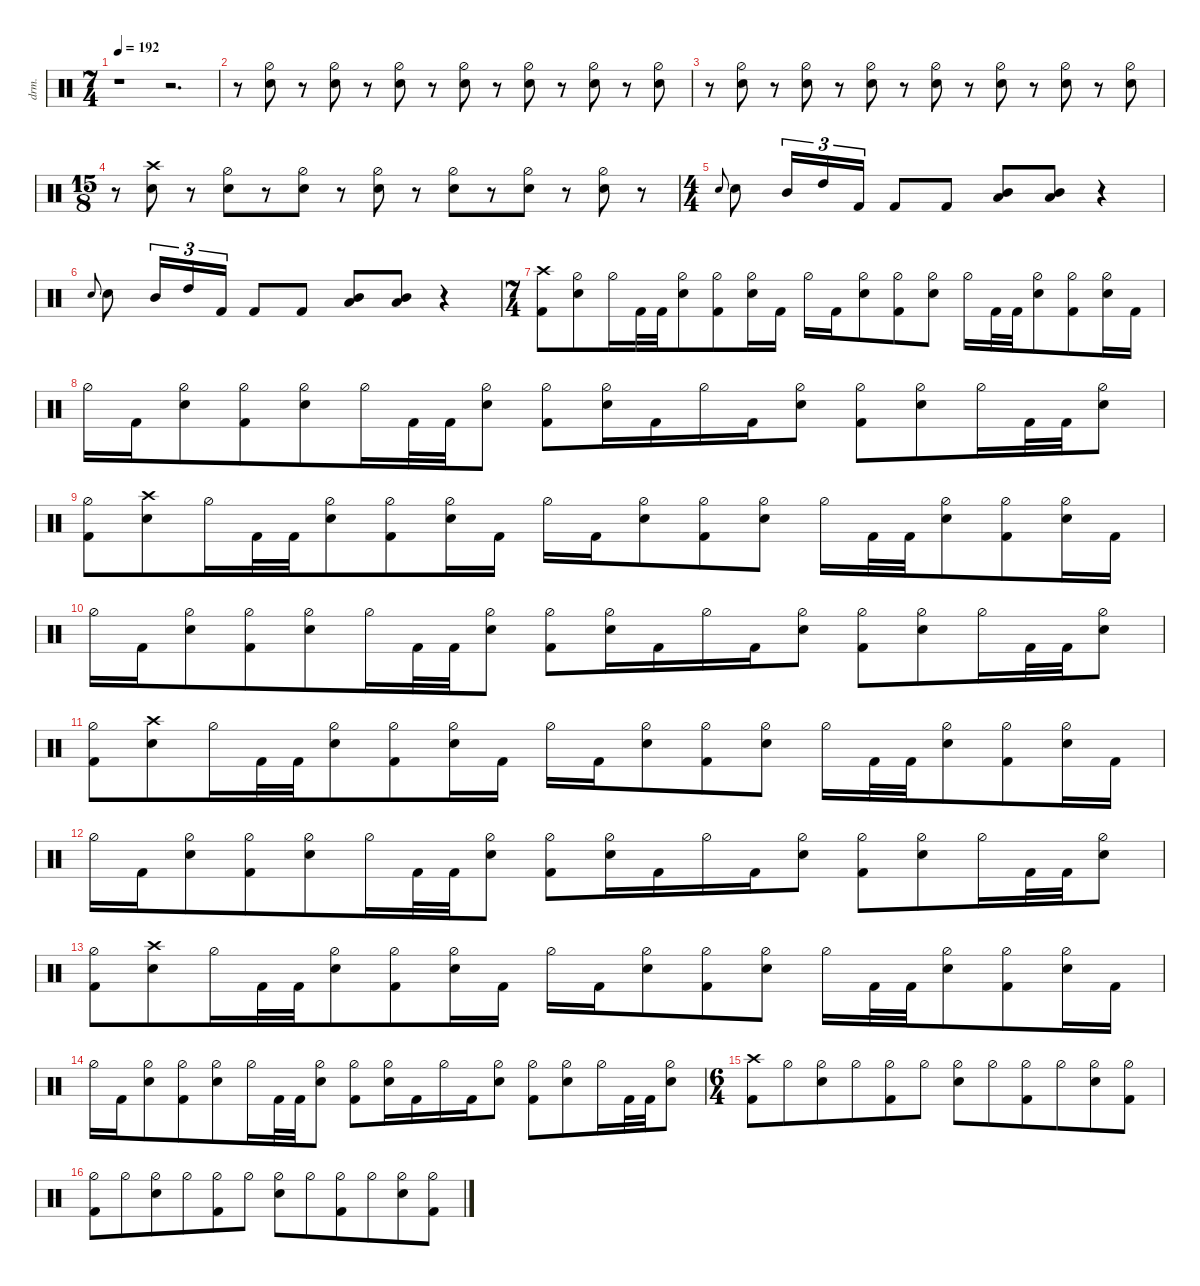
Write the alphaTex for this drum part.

\defaultSystemsLayout 4
\hideDynamics
\bracketExtendMode nobrackets
\otherSystemsTrackNameOrientation horizontal
\track ("Drumkit" "drm.") {defaultSystemsLayout 4 multiBarRest instrument percussion}
\staff
\articulation defaults
\ts (7 4)
\tempo 192
\clef neutral
\ks c
r.1{dy f beam Down} r.2{d beam Down} |
r.8{beam Down} ("Hi-Hat (half)" "Snare (hit) 2").8{beam Down} r.8{beam Down} ("Hi-Hat (half)" "Snare (hit) 2").8{beam Down} r.8{beam Down} ("Hi-Hat (half)" "Snare (hit) 2").8{beam Down} r.8{beam Down} ("Hi-Hat (half)" "Snare (hit) 2").8{beam Down} r.8{beam Down} ("Hi-Hat (half)" "Snare (hit) 2").8{beam Down} r.8{beam Down} ("Hi-Hat (half)" "Snare (hit) 2").8{beam Down} r.8{beam Down} ("Hi-Hat (half)" "Snare (hit) 2").8{beam Down} |
r.8{beam Down} ("Hi-Hat (half)" "Snare (hit) 2").8{beam Down} r.8{beam Down} ("Hi-Hat (half)" "Snare (hit) 2").8{beam Down} r.8{beam Down} ("Hi-Hat (half)" "Snare (hit) 2").8{beam Down} r.8{beam Down} ("Hi-Hat (half)" "Snare (hit) 2").8{beam Down} r.8{beam Down} ("Hi-Hat (half)" "Snare (hit) 2").8{beam Down} r.8{beam Down} ("Hi-Hat (half)" "Snare (hit) 2").8{beam Down} r.8{beam Down} ("Hi-Hat (half)" "Snare (hit) 2").8{beam Down} |
\ts (15 8)
\beaming (8 3 3 3 3 3)
r.8{beam Down} ("Snare (hit) 2" "Crash high (hit)").8{beam Down} r.8{beam Down} ("Hi-Hat (half)" "Snare (hit) 2").8{beam Down} r.8{beam Down} ("Hi-Hat (half)" "Snare (hit) 2").8{beam Down} r.8{beam Down} ("Hi-Hat (half)" "Snare (hit) 2").8{beam Down} r.8{beam Down} ("Hi-Hat (half)" "Snare (hit) 2").8{beam Down} r.8{beam Down} ("Hi-Hat (half)" "Snare (hit) 2").8{beam Down} r.8{beam Down} ("Hi-Hat (half)" "Snare (hit) 2").8{beam Down} r.8{beam Down} |
\ts (4 4)
\beaming (8 2 2 2 2)
"Snare (hit) 2".8{gr onbeat beam Up} "Snare (hit) 2".8{beam Down} "Mid Tom (hit)".16{tu (3 2) beam Up} "High Tom (hit)".16{tu (3 2) beam Up} "Kick (hit) 2".16{tu (3 2) beam Up} "Kick (hit) 2".8{beam Up} "Kick (hit) 2".8{beam Up} ("Mid Tom (hit)" "Low Tom (hit)").8{dy fff beam Up} ("Mid Tom (hit)" "Low Tom (hit)").8{beam Up} r.4{beam Up} |
"Snare (hit) 2".8{gr onbeat dy f beam Up} "Snare (hit) 2".8{beam Down} "Mid Tom (hit)".16{tu (3 2) beam Up} "High Tom (hit)".16{tu (3 2) beam Up} "Kick (hit) 2".16{tu (3 2) beam Up} "Kick (hit) 2".8{beam Up} "Kick (hit) 2".8{beam Up} ("Mid Tom (hit)" "Low Tom (hit)").8{dy fff beam Up} ("Mid Tom (hit)" "Low Tom (hit)").8{beam Up} r.4{beam Up} |
\ts (7 4)
\beaming (8 6 4 4)
("Crash high (hit)" "Kick (hit) 2").8{dy f beam Down} ("Hi-Hat (half)" "Snare (hit) 2").8{beam Down} "Hi-Hat (half)".16{beam Down} "Kick (hit) 2".32{beam Down} "Kick (hit) 2".32{beam Down} ("Hi-Hat (half)" "Snare (hit) 2").8{beam Down} ("Hi-Hat (half)" "Kick (hit) 2").8{beam Down} ("Hi-Hat (half)" "Snare (hit) 2").16{beam Down} "Kick (hit) 2".16{beam Down} "Hi-Hat (half)".16{beam Down} "Kick (hit) 2".16{beam Down} ("Hi-Hat (half)" "Snare (hit) 2").8{beam Down} ("Kick (hit) 2" "Hi-Hat (half)").8{beam Down} ("Hi-Hat (half)" "Snare (hit) 2").8{beam Down} "Hi-Hat (half)".16{beam Down} "Kick (hit) 2".32{beam Down} "Kick (hit) 2".32{beam Down} ("Hi-Hat (half)" "Snare (hit) 2").8{beam Down} ("Hi-Hat (half)" "Kick (hit) 2").8{beam Down} ("Hi-Hat (half)" "Snare (hit) 2").16{beam Down} "Kick (hit) 2".16{beam Down} |
"Hi-Hat (half)".16{beam Down} "Kick (hit) 2".16{beam Down} ("Hi-Hat (half)" "Snare (hit) 2").8{beam Down} ("Kick (hit) 2" "Hi-Hat (half)").8{beam Down} ("Hi-Hat (half)" "Snare (hit) 2").8{beam Down} "Hi-Hat (half)".16{beam Down} "Kick (hit) 2".32{beam Down} "Kick (hit) 2".32{beam Down} ("Hi-Hat (half)" "Snare (hit) 2").8{beam Down} ("Hi-Hat (half)" "Kick (hit) 2").8{beam Down} ("Hi-Hat (half)" "Snare (hit) 2").16{beam Down} "Kick (hit) 2".16{beam Down} "Hi-Hat (half)".16{beam Down} "Kick (hit) 2".16{beam Down} ("Hi-Hat (half)" "Snare (hit) 2").8{beam Down} ("Kick (hit) 2" "Hi-Hat (half)").8{beam Down} ("Hi-Hat (half)" "Snare (hit) 2").8{beam Down} "Hi-Hat (half)".16{beam Down} "Kick (hit) 2".32{beam Down} "Kick (hit) 2".32{beam Down} ("Hi-Hat (half)" "Snare (hit) 2").8{beam Down} |
("Kick (hit) 2" "Hi-Hat (half)").8{beam Down} ("Snare (hit) 2" "Crash high (hit)").8{beam Down} "Hi-Hat (half)".16{beam Down} "Kick (hit) 2".32{beam Down} "Kick (hit) 2".32{beam Down} ("Hi-Hat (half)" "Snare (hit) 2").8{beam Down} ("Hi-Hat (half)" "Kick (hit) 2").8{beam Down} ("Hi-Hat (half)" "Snare (hit) 2").16{beam Down} "Kick (hit) 2".16{beam Down} "Hi-Hat (half)".16{beam Down} "Kick (hit) 2".16{beam Down} ("Hi-Hat (half)" "Snare (hit) 2").8{beam Down} ("Kick (hit) 2" "Hi-Hat (half)").8{beam Down} ("Hi-Hat (half)" "Snare (hit) 2").8{beam Down} "Hi-Hat (half)".16{beam Down} "Kick (hit) 2".32{beam Down} "Kick (hit) 2".32{beam Down} ("Hi-Hat (half)" "Snare (hit) 2").8{beam Down} ("Hi-Hat (half)" "Kick (hit) 2").8{beam Down} ("Hi-Hat (half)" "Snare (hit) 2").16{beam Down} "Kick (hit) 2".16{beam Down} |
"Hi-Hat (half)".16{beam Down} "Kick (hit) 2".16{beam Down} ("Hi-Hat (half)" "Snare (hit) 2").8{beam Down} ("Kick (hit) 2" "Hi-Hat (half)").8{beam Down} ("Hi-Hat (half)" "Snare (hit) 2").8{beam Down} "Hi-Hat (half)".16{beam Down} "Kick (hit) 2".32{beam Down} "Kick (hit) 2".32{beam Down} ("Hi-Hat (half)" "Snare (hit) 2").8{beam Down} ("Hi-Hat (half)" "Kick (hit) 2").8{beam Down} ("Hi-Hat (half)" "Snare (hit) 2").16{beam Down} "Kick (hit) 2".16{beam Down} "Hi-Hat (half)".16{beam Down} "Kick (hit) 2".16{beam Down} ("Hi-Hat (half)" "Snare (hit) 2").8{beam Down} ("Kick (hit) 2" "Hi-Hat (half)").8{beam Down} ("Hi-Hat (half)" "Snare (hit) 2").8{beam Down} "Hi-Hat (half)".16{beam Down} "Kick (hit) 2".32{beam Down} "Kick (hit) 2".32{beam Down} ("Hi-Hat (half)" "Snare (hit) 2").8{beam Down} |
("Kick (hit) 2" "Hi-Hat (half)").8{beam Down} ("Snare (hit) 2" "Crash high (hit)").8{beam Down} "Hi-Hat (half)".16{beam Down} "Kick (hit) 2".32{beam Down} "Kick (hit) 2".32{beam Down} ("Hi-Hat (half)" "Snare (hit) 2").8{beam Down} ("Hi-Hat (half)" "Kick (hit) 2").8{beam Down} ("Hi-Hat (half)" "Snare (hit) 2").16{beam Down} "Kick (hit) 2".16{beam Down} "Hi-Hat (half)".16{beam Down} "Kick (hit) 2".16{beam Down} ("Hi-Hat (half)" "Snare (hit) 2").8{beam Down} ("Kick (hit) 2" "Hi-Hat (half)").8{beam Down} ("Hi-Hat (half)" "Snare (hit) 2").8{beam Down} "Hi-Hat (half)".16{beam Down} "Kick (hit) 2".32{beam Down} "Kick (hit) 2".32{beam Down} ("Hi-Hat (half)" "Snare (hit) 2").8{beam Down} ("Hi-Hat (half)" "Kick (hit) 2").8{beam Down} ("Hi-Hat (half)" "Snare (hit) 2").16{beam Down} "Kick (hit) 2".16{beam Down} |
"Hi-Hat (half)".16{beam Down} "Kick (hit) 2".16{beam Down} ("Hi-Hat (half)" "Snare (hit) 2").8{beam Down} ("Kick (hit) 2" "Hi-Hat (half)").8{beam Down} ("Hi-Hat (half)" "Snare (hit) 2").8{beam Down} "Hi-Hat (half)".16{beam Down} "Kick (hit) 2".32{beam Down} "Kick (hit) 2".32{beam Down} ("Hi-Hat (half)" "Snare (hit) 2").8{beam Down} ("Hi-Hat (half)" "Kick (hit) 2").8{beam Down} ("Hi-Hat (half)" "Snare (hit) 2").16{beam Down} "Kick (hit) 2".16{beam Down} "Hi-Hat (half)".16{beam Down} "Kick (hit) 2".16{beam Down} ("Hi-Hat (half)" "Snare (hit) 2").8{beam Down} ("Kick (hit) 2" "Hi-Hat (half)").8{beam Down} ("Hi-Hat (half)" "Snare (hit) 2").8{beam Down} "Hi-Hat (half)".16{beam Down} "Kick (hit) 2".32{beam Down} "Kick (hit) 2".32{beam Down} ("Hi-Hat (half)" "Snare (hit) 2").8{beam Down} |
("Kick (hit) 2" "Hi-Hat (half)").8{beam Down} ("Snare (hit) 2" "Crash high (hit)").8{beam Down} "Hi-Hat (half)".16{beam Down} "Kick (hit) 2".32{beam Down} "Kick (hit) 2".32{beam Down} ("Hi-Hat (half)" "Snare (hit) 2").8{beam Down} ("Hi-Hat (half)" "Kick (hit) 2").8{beam Down} ("Hi-Hat (half)" "Snare (hit) 2").16{beam Down} "Kick (hit) 2".16{beam Down} "Hi-Hat (half)".16{beam Down} "Kick (hit) 2".16{beam Down} ("Hi-Hat (half)" "Snare (hit) 2").8{beam Down} ("Kick (hit) 2" "Hi-Hat (half)").8{beam Down} ("Hi-Hat (half)" "Snare (hit) 2").8{beam Down} "Hi-Hat (half)".16{beam Down} "Kick (hit) 2".32{beam Down} "Kick (hit) 2".32{beam Down} ("Hi-Hat (half)" "Snare (hit) 2").8{beam Down} ("Hi-Hat (half)" "Kick (hit) 2").8{beam Down} ("Hi-Hat (half)" "Snare (hit) 2").16{beam Down} "Kick (hit) 2".16{beam Down} |
"Hi-Hat (half)".16{beam Down} "Kick (hit) 2".16{beam Down} ("Hi-Hat (half)" "Snare (hit) 2").8{beam Down} ("Kick (hit) 2" "Hi-Hat (half)").8{beam Down} ("Hi-Hat (half)" "Snare (hit) 2").8{beam Down} "Hi-Hat (half)".16{beam Down} "Kick (hit) 2".32{beam Down} "Kick (hit) 2".32{beam Down} ("Hi-Hat (half)" "Snare (hit) 2").8{beam Down} ("Hi-Hat (half)" "Kick (hit) 2").8{beam Down} ("Hi-Hat (half)" "Snare (hit) 2").16{beam Down} "Kick (hit) 2".16{beam Down} "Hi-Hat (half)".16{beam Down} "Kick (hit) 2".16{beam Down} ("Hi-Hat (half)" "Snare (hit) 2").8{beam Down} ("Kick (hit) 2" "Hi-Hat (half)").8{beam Down} ("Hi-Hat (half)" "Snare (hit) 2").8{beam Down} "Hi-Hat (half)".16{beam Down} "Kick (hit) 2".32{beam Down} "Kick (hit) 2".32{beam Down} ("Hi-Hat (half)" "Snare (hit) 2").8{beam Down} |
\ts (6 4)
\beaming (8 6 6)
("Kick (hit) 2" "Crash high (hit)").8{beam Down} "Hi-Hat (half)".8{beam Down} ("Hi-Hat (half)" "Snare (hit) 2").8{beam Down} "Hi-Hat (half)".8{beam Down} ("Kick (hit) 2" "Hi-Hat (half)").8{beam Down} "Hi-Hat (half)".8{beam Down} ("Hi-Hat (half)" "Snare (hit) 2").8{beam Down} "Hi-Hat (half)".8{beam Down} ("Kick (hit) 2" "Hi-Hat (half)").8{beam Down} "Hi-Hat (half)".8{beam Down} ("Hi-Hat (half)" "Snare (hit) 2").8{beam Down} ("Hi-Hat (half)" "Kick (hit) 2").8{beam Down} |
("Kick (hit) 2" "Hi-Hat (half)").8{beam Down} "Hi-Hat (half)".8{beam Down} ("Hi-Hat (half)" "Snare (hit) 2").8{beam Down} "Hi-Hat (half)".8{beam Down} ("Kick (hit) 2" "Hi-Hat (half)").8{beam Down} "Hi-Hat (half)".8{beam Down} ("Hi-Hat (half)" "Snare (hit) 2").8{beam Down} "Hi-Hat (half)".8{beam Down} ("Kick (hit) 2" "Hi-Hat (half)").8{beam Down} "Hi-Hat (half)".8{beam Down} ("Hi-Hat (half)" "Snare (hit) 2").8{beam Down} ("Hi-Hat (half)" "Kick (hit) 2").8{beam Down}
